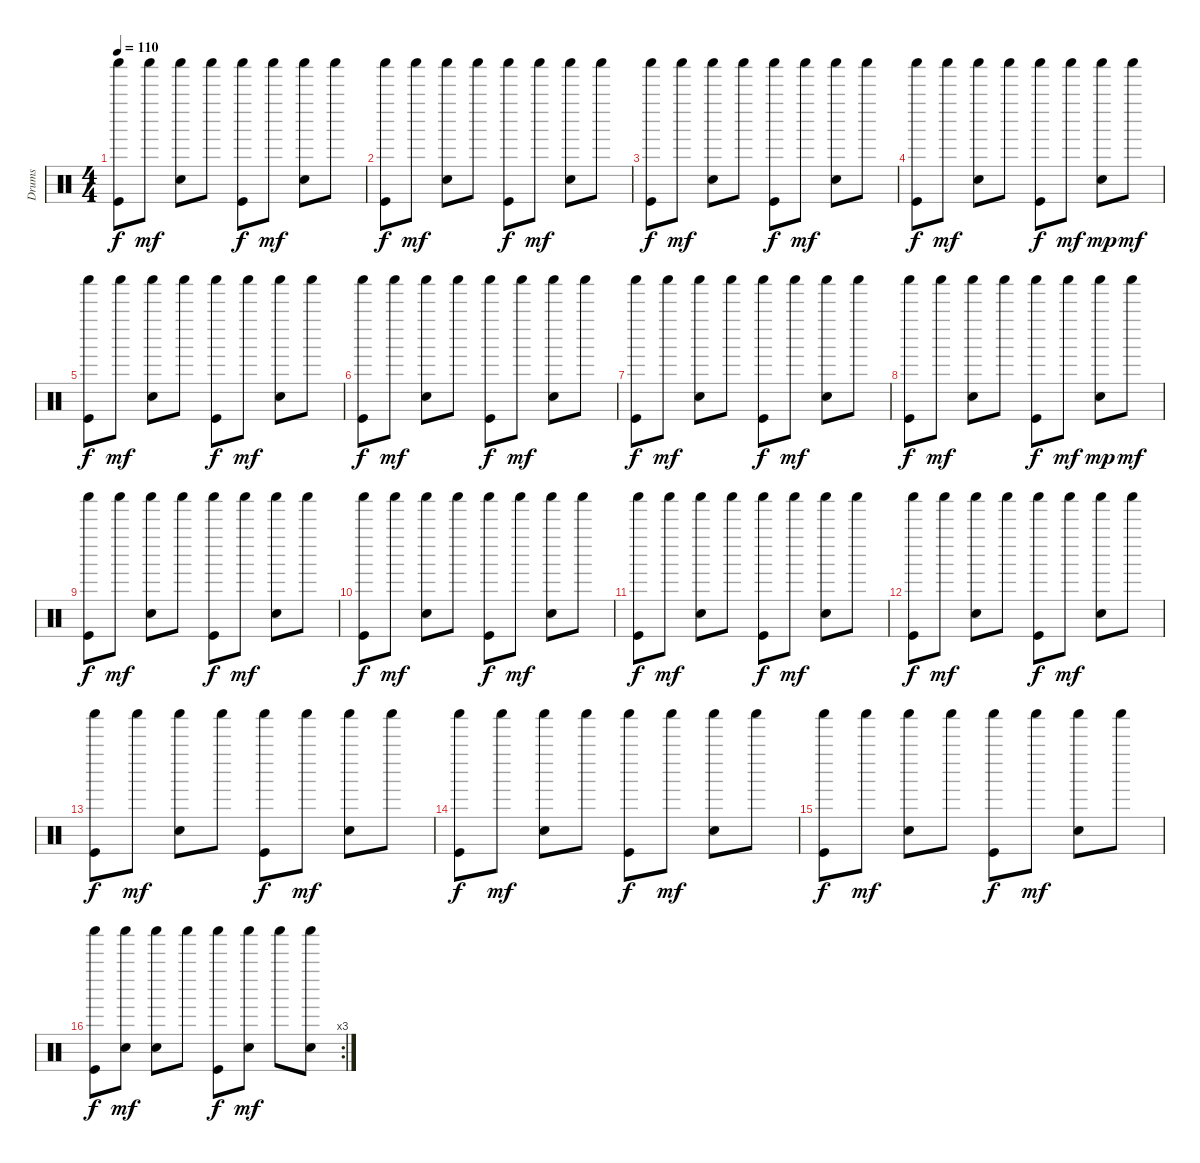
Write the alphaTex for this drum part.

\track ("Drums" "Drums") {instrument percussion}
\staff {score}
\articulation defaults
\ts (4 4)
\tempo 110
\clef neutral
\ks c
("Shaker (hit)" "Kick (hit)").8{dy f} "Shaker (hit)".8{dy mf} ("Shaker (hit)" "Snare (hit) 2").8 "Shaker (hit)".8 ("Shaker (hit)" "Kick (hit)").8{dy f} "Shaker (hit)".8{dy mf} ("Shaker (hit)" "Snare (hit) 2").8 "Shaker (hit)".8 |
("Shaker (hit)" "Kick (hit)").8{dy f} "Shaker (hit)".8{dy mf} ("Shaker (hit)" "Snare (hit) 2").8 "Shaker (hit)".8 ("Shaker (hit)" "Kick (hit)").8{dy f} "Shaker (hit)".8{dy mf} ("Shaker (hit)" "Snare (hit) 2").8 "Shaker (hit)".8 |
("Shaker (hit)" "Kick (hit)").8{dy f} "Shaker (hit)".8{dy mf} ("Shaker (hit)" "Snare (hit) 2").8 "Shaker (hit)".8 ("Shaker (hit)" "Kick (hit)").8{dy f} "Shaker (hit)".8{dy mf} ("Shaker (hit)" "Snare (hit) 2").8 "Shaker (hit)".8 |
("Shaker (hit)" "Kick (hit)").8{dy f} "Shaker (hit)".8{dy mf} ("Shaker (hit)" "Snare (hit) 2").8 "Shaker (hit)".8 ("Shaker (hit)" "Kick (hit)").8{dy f} "Shaker (hit)".8{dy mf} ("Shaker (hit)" "Snare (hit) 2").8{dy mp} "Shaker (hit)".8{dy mf} |
("Shaker (hit)" "Kick (hit)").8{dy f} "Shaker (hit)".8{dy mf} ("Shaker (hit)" "Snare (hit) 2").8 "Shaker (hit)".8 ("Shaker (hit)" "Kick (hit)").8{dy f} "Shaker (hit)".8{dy mf} ("Shaker (hit)" "Snare (hit) 2").8 "Shaker (hit)".8 |
("Shaker (hit)" "Kick (hit)").8{dy f} "Shaker (hit)".8{dy mf} ("Shaker (hit)" "Snare (hit) 2").8 "Shaker (hit)".8 ("Shaker (hit)" "Kick (hit)").8{dy f} "Shaker (hit)".8{dy mf} ("Shaker (hit)" "Snare (hit) 2").8 "Shaker (hit)".8 |
("Shaker (hit)" "Kick (hit)").8{dy f} "Shaker (hit)".8{dy mf} ("Shaker (hit)" "Snare (hit) 2").8 "Shaker (hit)".8 ("Shaker (hit)" "Kick (hit)").8{dy f} "Shaker (hit)".8{dy mf} ("Shaker (hit)" "Snare (hit) 2").8 "Shaker (hit)".8 |
("Shaker (hit)" "Kick (hit)").8{dy f} "Shaker (hit)".8{dy mf} ("Shaker (hit)" "Snare (hit) 2").8 "Shaker (hit)".8 ("Shaker (hit)" "Kick (hit)").8{dy f} "Shaker (hit)".8{dy mf} ("Shaker (hit)" "Snare (hit) 2").8{dy mp} "Shaker (hit)".8{dy mf} |
("Shaker (hit)" "Kick (hit)").8{dy f} "Shaker (hit)".8{dy mf} ("Shaker (hit)" "Snare (hit) 2").8 "Shaker (hit)".8 ("Shaker (hit)" "Kick (hit)").8{dy f} "Shaker (hit)".8{dy mf} ("Shaker (hit)" "Snare (hit) 2").8 "Shaker (hit)".8 |
("Shaker (hit)" "Kick (hit)").8{dy f} "Shaker (hit)".8{dy mf} ("Shaker (hit)" "Snare (hit) 2").8 "Shaker (hit)".8 ("Shaker (hit)" "Kick (hit)").8{dy f} "Shaker (hit)".8{dy mf} ("Shaker (hit)" "Snare (hit) 2").8 "Shaker (hit)".8 |
("Shaker (hit)" "Kick (hit)").8{dy f} "Shaker (hit)".8{dy mf} ("Shaker (hit)" "Snare (hit) 2").8 "Shaker (hit)".8 ("Shaker (hit)" "Kick (hit)").8{dy f} "Shaker (hit)".8{dy mf} ("Shaker (hit)" "Snare (hit) 2").8 "Shaker (hit)".8 |
("Shaker (hit)" "Kick (hit)").8{dy f} "Shaker (hit)".8{dy mf} ("Shaker (hit)" "Snare (hit) 2").8 "Shaker (hit)".8 ("Shaker (hit)" "Kick (hit)").8{dy f} "Shaker (hit)".8{dy mf} ("Shaker (hit)" "Snare (hit) 2").8 "Shaker (hit)".8 |
("Shaker (hit)" "Kick (hit)").8{dy f} "Shaker (hit)".8{dy mf} ("Shaker (hit)" "Snare (hit) 2").8 "Shaker (hit)".8 ("Shaker (hit)" "Kick (hit)").8{dy f} "Shaker (hit)".8{dy mf} ("Shaker (hit)" "Snare (hit) 2").8 "Shaker (hit)".8 |
("Shaker (hit)" "Kick (hit)").8{dy f} "Shaker (hit)".8{dy mf} ("Shaker (hit)" "Snare (hit) 2").8 "Shaker (hit)".8 ("Shaker (hit)" "Kick (hit)").8{dy f} "Shaker (hit)".8{dy mf} ("Shaker (hit)" "Snare (hit) 2").8 "Shaker (hit)".8 |
("Shaker (hit)" "Kick (hit)").8{dy f} "Shaker (hit)".8{dy mf} ("Shaker (hit)" "Snare (hit) 2").8 "Shaker (hit)".8 ("Shaker (hit)" "Kick (hit)").8{dy f} "Shaker (hit)".8{dy mf} ("Shaker (hit)" "Snare (hit) 2").8 "Shaker (hit)".8 |
\rc 3
("Shaker (hit)" "Kick (hit)").8{dy f} ("Shaker (hit)" "Snare (hit) 2").8{dy mf} ("Shaker (hit)" "Snare (hit) 2").8 "Shaker (hit)".8 ("Shaker (hit)" "Kick (hit)").8{dy f} ("Shaker (hit)" "Snare (hit) 2").8{dy mf} "Shaker (hit)".8 ("Shaker (hit)" "Snare (hit) 2").8
